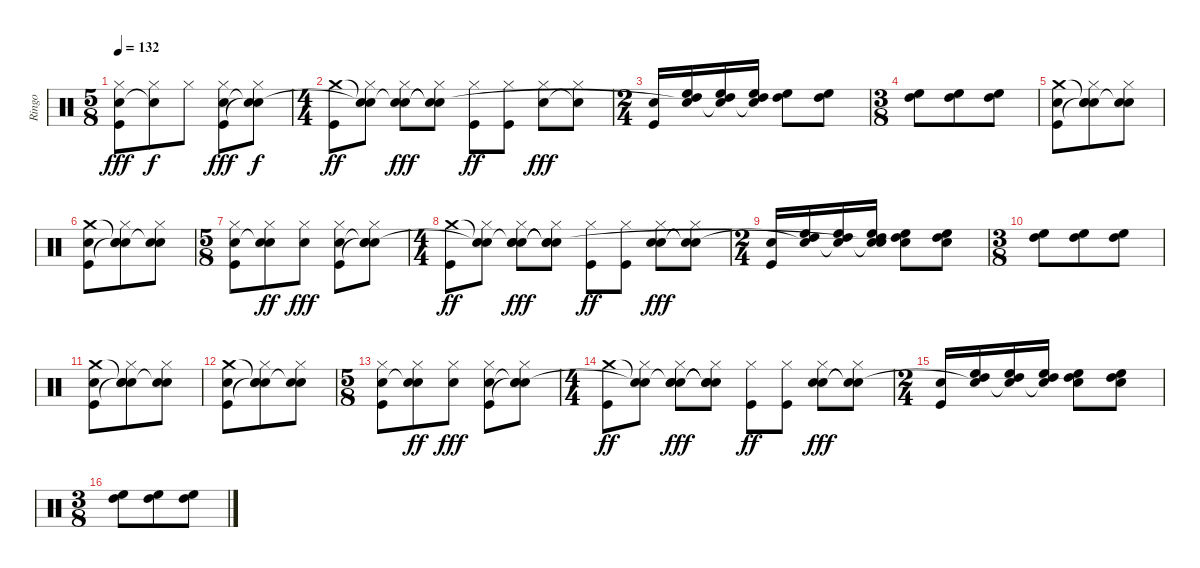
\track ("Ringo" "Ringo") {instrument percussion}
\staff {score}
\articulation defaults
\ts (5 8)
\tempo 132
\clef neutral
\ks c
("Hi-Hat (closed)" "Electric Snare (hit)" "Kick (hit)").8{dy fff} ("Hi-Hat (closed)" "Snare (hit)"{t}).8{dy f} "Hi-Hat (closed)".8 ("Hi-Hat (closed)" "Electric Snare (hit)" "Kick (hit)").8{dy fff} ("Hi-Hat (closed)" "Snare (hit)"{t} "Snare (hit)"{t}).8{dy f} |
\ts (4 4)
("Crash medium (hit)" "Kick (hit)").8{dy ff} ("Snare (hit)"{t} "Hi-Hat (closed)" "Snare (hit)"{t}).8 ("Snare (hit)"{t} "Hi-Hat (closed)" "Electric Snare (hit)").8{dy fff} ("Snare (hit)"{t} "Hi-Hat (closed)" "Snare (hit)"{t}).8 ("Hi-Hat (closed)" "Kick (hit)").8{dy ff} ("Hi-Hat (closed)" "Kick (hit)").8 ("Hi-Hat (closed)" "Electric Snare (hit)").8{dy fff} ("Hi-Hat (closed)" "Snare (hit)"{t}).8 |
\ts (2 4)
("Electric Snare (hit)" "Kick (hit)").16 ("High Tom (hit)" "High Floor Tom (hit)" "Snare (hit)"{t}).16 ("High Tom (hit)" "High Floor Tom (hit)" "Snare (hit)"{t}).16 ("High Tom (hit)" "High Floor Tom (hit)" "Snare (hit)"{t}).16 ("High Tom (hit)" "High Floor Tom (hit)").8 ("High Tom (hit)" "High Floor Tom (hit)").8 |
\ts (3 8)
("High Tom (hit)" "High Floor Tom (hit)").8 ("High Tom (hit)" "High Floor Tom (hit)").8 ("High Tom (hit)" "High Floor Tom (hit)").8 |
("Crash medium (hit)" "Electric Snare (hit)" "Kick (hit)").8 ("Snare (hit)"{t} "Hi-Hat (closed)" "Snare (hit)"{t} "Hand Clap (hit)").8 ("Snare (hit)"{t} "Hi-Hat (closed)" "Hand Clap (hit)").8 |
("Crash medium (hit)" "Electric Snare (hit)" "Kick (hit)").8 ("Snare (hit)"{t} "Hi-Hat (closed)" "Snare (hit)"{t} "Hand Clap (hit)").8 ("Snare (hit)"{t} "Hi-Hat (closed)" "Hand Clap (hit)").8 |
\ts (5 8)
("Hi-Hat (closed)" "Electric Snare (hit)" "Kick (hit)").8 ("Hi-Hat (closed)" "Snare (hit)"{t} "Hand Clap (hit)").8{dy ff} ("Hi-Hat (closed)" "Hand Clap (hit)").8{dy fff} ("Hi-Hat (closed)" "Electric Snare (hit)" "Kick (hit)").8 ("Hi-Hat (closed)" "Snare (hit)"{t} "Snare (hit)"{t} "Hand Clap (hit)").8 |
\ts (4 4)
("Crash medium (hit)" "Kick (hit)").8{dy ff} ("Snare (hit)"{t} "Hi-Hat (closed)" "Snare (hit)"{t}).8 ("Snare (hit)"{t} "Hi-Hat (closed)" "Electric Snare (hit)" "Hand Clap (hit)").8{dy fff} ("Snare (hit)"{t} "Hi-Hat (closed)" "Snare (hit)"{t} "Snare (hit)"{t}).8 ("Hi-Hat (closed)" "Kick (hit)").8{dy ff} ("Hi-Hat (closed)" "Kick (hit)").8 ("Hi-Hat (closed)" "Electric Snare (hit)" "Hand Clap (hit)").8{dy fff} ("Hi-Hat (closed)" "Snare (hit)"{t} "Snare (hit)"{t}).8 |
\ts (2 4)
("Electric Snare (hit)" "Kick (hit)").16 ("High Tom (hit)" "High Floor Tom (hit)" "Snare (hit)"{t}).16 ("High Tom (hit)" "High Floor Tom (hit)" "Snare (hit)"{t}).16 ("High Tom (hit)" "High Floor Tom (hit)" "Snare (hit)"{t} "Hand Clap (hit)"{t}).16 ("High Tom (hit)" "High Floor Tom (hit)" "Hand Clap (hit)").8 ("High Tom (hit)" "High Floor Tom (hit)" "Hand Clap (hit)").8 |
\ts (3 8)
("High Tom (hit)" "High Floor Tom (hit)").8 ("High Tom (hit)" "High Floor Tom (hit)").8 ("High Tom (hit)" "High Floor Tom (hit)").8 |
("Crash medium (hit)" "Electric Snare (hit)" "Kick (hit)").8 ("Snare (hit)"{t} "Hi-Hat (closed)" "Snare (hit)"{t} "Hand Clap (hit)").8 ("Snare (hit)"{t} "Hi-Hat (closed)" "Hand Clap (hit)").8 |
("Crash medium (hit)" "Electric Snare (hit)" "Kick (hit)").8 ("Snare (hit)"{t} "Hi-Hat (closed)" "Snare (hit)"{t} "Hand Clap (hit)").8 ("Snare (hit)"{t} "Hi-Hat (closed)" "Hand Clap (hit)").8 |
\ts (5 8)
("Hi-Hat (closed)" "Electric Snare (hit)" "Kick (hit)").8 ("Hi-Hat (closed)" "Snare (hit)"{t} "Hand Clap (hit)").8{dy ff} ("Hi-Hat (closed)" "Hand Clap (hit)").8{dy fff} ("Hi-Hat (closed)" "Electric Snare (hit)" "Kick (hit)").8 ("Hi-Hat (closed)" "Snare (hit)"{t} "Snare (hit)"{t} "Hand Clap (hit)").8 |
\ts (4 4)
("Crash medium (hit)" "Kick (hit)").8{dy ff} ("Snare (hit)"{t} "Hi-Hat (closed)" "Snare (hit)"{t}).8 ("Snare (hit)"{t} "Hi-Hat (closed)" "Electric Snare (hit)" "Hand Clap (hit)").8{dy fff} ("Snare (hit)"{t} "Hi-Hat (closed)" "Snare (hit)"{t} "Snare (hit)"{t}).8 ("Hi-Hat (closed)" "Kick (hit)").8{dy ff} ("Hi-Hat (closed)" "Kick (hit)").8 ("Hi-Hat (closed)" "Electric Snare (hit)" "Hand Clap (hit)").8{dy fff} ("Hi-Hat (closed)" "Snare (hit)"{t} "Snare (hit)"{t}).8 |
\ts (2 4)
("Electric Snare (hit)" "Kick (hit)").16 ("High Tom (hit)" "High Floor Tom (hit)" "Snare (hit)"{t}).16 ("High Tom (hit)" "High Floor Tom (hit)" "Snare (hit)"{t}).16 ("High Tom (hit)" "High Floor Tom (hit)" "Snare (hit)"{t}).16 ("High Tom (hit)" "High Floor Tom (hit)" "Hand Clap (hit)").8 ("High Tom (hit)" "High Floor Tom (hit)" "Hand Clap (hit)").8 |
\ts (3 8)
("High Tom (hit)" "High Floor Tom (hit)").8 ("High Tom (hit)" "High Floor Tom (hit)").8 ("High Tom (hit)" "High Floor Tom (hit)").8
